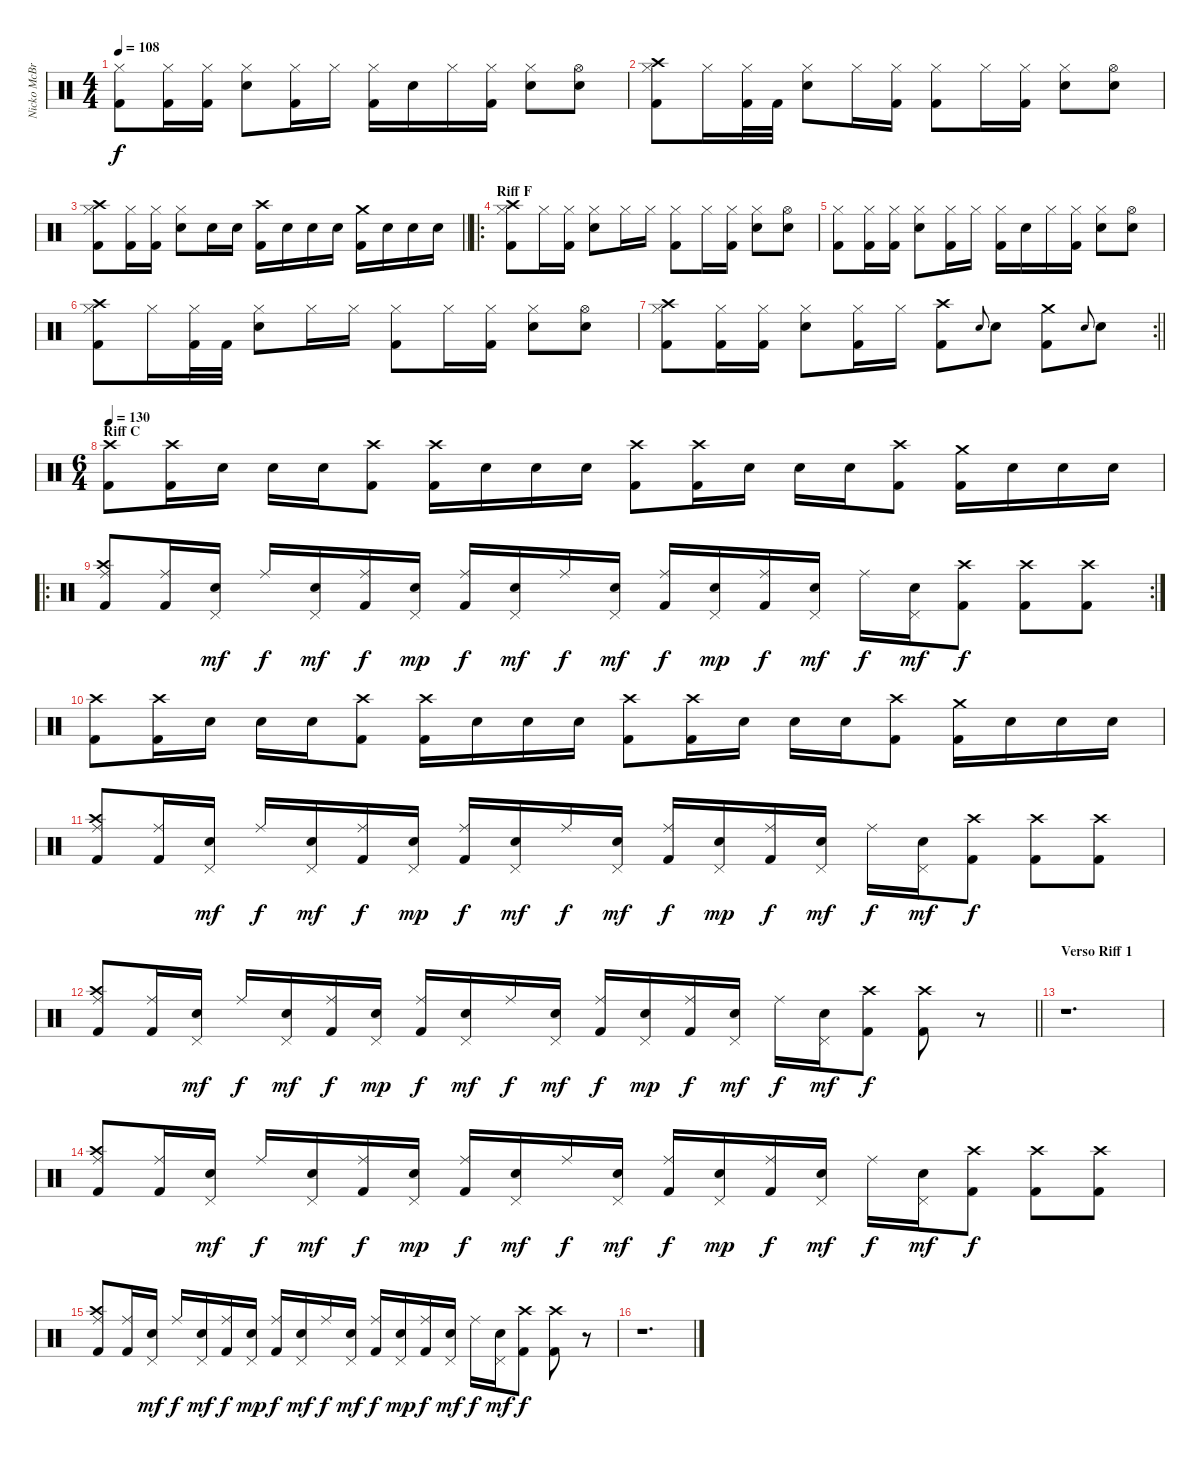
\track ("Nicko McBrain" "Nicko McBr") {instrument percussion}
\staff {score}
\articulation defaults
\ts (4 4)
\tempo 108
\clef neutral
\ks c
("Hi-Hat (closed)" "Kick (hit) 2").8{dy f} ("Hi-Hat (closed)" "Kick (hit) 2").16 ("Hi-Hat (closed)" "Kick (hit) 2").16 ("Hi-Hat (closed)" "Snare (hit) 2").8 ("Hi-Hat (closed)" "Kick (hit) 2").16 "Hi-Hat (closed)".16 ("Hi-Hat (closed)" "Kick (hit) 2").16 "Snare (hit) 2".16 "Hi-Hat (closed)".16 ("Hi-Hat (closed)" "Kick (hit) 2").16 ("Hi-Hat (closed)" "Snare (hit) 2").8 ("Hi-Hat (open)" "Snare (hit) 2").8 |
("Hi-Hat (closed)" "Crash high (hit)" "Kick (hit) 2").8 "Hi-Hat (closed)".16 ("Hi-Hat (closed)" "Kick (hit) 2").32 "Kick (hit) 2".32 ("Hi-Hat (closed)" "Snare (hit) 2").8 "Hi-Hat (closed)".16 ("Hi-Hat (closed)" "Kick (hit) 2").16 ("Hi-Hat (closed)" "Kick (hit) 2").8 "Hi-Hat (closed)".16 ("Hi-Hat (closed)" "Kick (hit) 2").16 ("Hi-Hat (closed)" "Snare (hit) 2").8 ("Hi-Hat (open)" "Snare (hit) 2").8 |
\barLineRight lightlight
("Hi-Hat (closed)" "Crash high (hit)" "Kick (hit) 2").8 ("Hi-Hat (closed)" "Kick (hit) 2").16 ("Hi-Hat (closed)" "Kick (hit) 2").16 ("Hi-Hat (closed)" "Snare (hit) 2").8 "Snare (hit) 2".16 "Snare (hit) 2".16 ("Crash high (hit)" "Kick (hit) 2").16 "Snare (hit) 2".16 "Snare (hit) 2".16 "Snare (hit) 2".16 ("Crash medium (hit)" "Kick (hit) 2").16 "Snare (hit) 2".16 "Snare (hit) 2".16 "Snare (hit) 2".16 |
\ro
\section ("" "Riff F")
("Hi-Hat (closed)" "Crash high (hit)" "Kick (hit) 2").8 "Hi-Hat (closed)".16 ("Hi-Hat (closed)" "Kick (hit) 2").16 ("Hi-Hat (closed)" "Snare (hit) 2").8 "Hi-Hat (closed)".16 "Hi-Hat (closed)".16 ("Hi-Hat (closed)" "Kick (hit) 2").8 "Hi-Hat (closed)".16 ("Hi-Hat (closed)" "Kick (hit) 2").16 ("Hi-Hat (closed)" "Snare (hit) 2").8 ("Hi-Hat (open)" "Snare (hit) 2").8 |
("Hi-Hat (closed)" "Kick (hit) 2").8 ("Hi-Hat (closed)" "Kick (hit) 2").16 ("Hi-Hat (closed)" "Kick (hit) 2").16 ("Hi-Hat (closed)" "Snare (hit) 2").8 ("Hi-Hat (closed)" "Kick (hit) 2").16 "Hi-Hat (closed)".16 ("Hi-Hat (closed)" "Kick (hit) 2").16 "Snare (hit) 2".16 "Hi-Hat (closed)".16 ("Hi-Hat (closed)" "Kick (hit) 2").16 ("Hi-Hat (closed)" "Snare (hit) 2").8 ("Hi-Hat (open)" "Snare (hit) 2").8 |
("Hi-Hat (closed)" "Crash high (hit)" "Kick (hit) 2").8 "Hi-Hat (closed)".16 ("Hi-Hat (closed)" "Kick (hit) 2").32 "Kick (hit) 2".32 ("Hi-Hat (closed)" "Snare (hit) 2").8 "Hi-Hat (closed)".16 "Hi-Hat (closed)".16 ("Hi-Hat (closed)" "Kick (hit) 2").8 "Hi-Hat (closed)".16 ("Hi-Hat (closed)" "Kick (hit) 2").16 ("Hi-Hat (closed)" "Snare (hit) 2").8 ("Hi-Hat (open)" "Snare (hit) 2").8 |
\rc 2
\barLineRight lightlight
("Hi-Hat (closed)" "Crash high (hit)" "Kick (hit) 2").8 ("Hi-Hat (closed)" "Kick (hit) 2").16 ("Hi-Hat (closed)" "Kick (hit) 2").16 ("Hi-Hat (closed)" "Snare (hit) 2").8 ("Hi-Hat (closed)" "Kick (hit) 2").16 "Hi-Hat (closed)".16 ("Crash high (hit)" "Kick (hit) 2").8 "Snare (hit) 2".8{gr onbeat} "Snare (hit) 2".8 ("Crash medium (hit)" "Kick (hit) 2").8 "Snare (hit) 2".8{gr onbeat} "Snare (hit) 2".8 |
\ts (6 4)
\section ("" "Riff C")
\tempo 130
("Crash high (hit)" "Kick (hit) 2").8 ("Crash high (hit)" "Kick (hit) 2").16 "Snare (hit) 2".16 "Snare (hit) 2".16 "Snare (hit) 2".16 ("Crash high (hit)" "Kick (hit) 2").8 ("Crash high (hit)" "Kick (hit) 2").16 "Snare (hit) 2".16 "Snare (hit) 2".16 "Snare (hit) 2".16 ("Crash high (hit)" "Kick (hit) 2").8 ("Crash high (hit)" "Kick (hit) 2").16 "Snare (hit) 2".16 "Snare (hit) 2".16 "Snare (hit) 2".16 ("Crash high (hit)" "Kick (hit) 2").8 ("Crash medium (hit)" "Kick (hit) 2").16 "Snare (hit) 2".16 "Snare (hit) 2".16 "Snare (hit) 2".16 |
\ro
\rc 2
("Ride (middle)" "Crash high (hit)" "Kick (hit) 2").8 ("Ride (middle)" "Kick (hit) 2").16 ("Pedal Hi-Hat (hit)" "Snare (hit) 2").16{dy mf} "Ride (middle)".16{dy f} ("Pedal Hi-Hat (hit)" "Snare (hit) 2").16{dy mf} ("Ride (middle)" "Kick (hit) 2").16{dy f} ("Pedal Hi-Hat (hit)" "Snare (hit) 2").16{dy mp} ("Ride (middle)" "Kick (hit) 2").16{dy f} ("Pedal Hi-Hat (hit)" "Snare (hit) 2").16{dy mf} "Ride (middle)".16{dy f} ("Pedal Hi-Hat (hit)" "Snare (hit) 2").16{dy mf} ("Ride (middle)" "Kick (hit) 2").16{dy f} ("Pedal Hi-Hat (hit)" "Snare (hit) 2").16{dy mp} ("Ride (middle)" "Kick (hit) 2").16{dy f} ("Pedal Hi-Hat (hit)" "Snare (hit) 2").16{dy mf} "Ride (middle)".16{dy f} ("Pedal Hi-Hat (hit)" "Snare (hit) 2").16{dy mf} ("Crash high (hit)" "Kick (hit) 2").8{dy f} ("Crash high (hit)" "Kick (hit) 2").8 ("Crash high (hit)" "Kick (hit) 2").8 |
("Crash high (hit)" "Kick (hit) 2").8 ("Crash high (hit)" "Kick (hit) 2").16 "Snare (hit) 2".16 "Snare (hit) 2".16 "Snare (hit) 2".16 ("Crash high (hit)" "Kick (hit) 2").8 ("Crash high (hit)" "Kick (hit) 2").16 "Snare (hit) 2".16 "Snare (hit) 2".16 "Snare (hit) 2".16 ("Crash high (hit)" "Kick (hit) 2").8 ("Crash high (hit)" "Kick (hit) 2").16 "Snare (hit) 2".16 "Snare (hit) 2".16 "Snare (hit) 2".16 ("Crash high (hit)" "Kick (hit) 2").8 ("Crash medium (hit)" "Kick (hit) 2").16 "Snare (hit) 2".16 "Snare (hit) 2".16 "Snare (hit) 2".16 |
("Ride (middle)" "Crash high (hit)" "Kick (hit) 2").8 ("Ride (middle)" "Kick (hit) 2").16 ("Pedal Hi-Hat (hit)" "Snare (hit) 2").16{dy mf} "Ride (middle)".16{dy f} ("Pedal Hi-Hat (hit)" "Snare (hit) 2").16{dy mf} ("Ride (middle)" "Kick (hit) 2").16{dy f} ("Pedal Hi-Hat (hit)" "Snare (hit) 2").16{dy mp} ("Ride (middle)" "Kick (hit) 2").16{dy f} ("Pedal Hi-Hat (hit)" "Snare (hit) 2").16{dy mf} "Ride (middle)".16{dy f} ("Pedal Hi-Hat (hit)" "Snare (hit) 2").16{dy mf} ("Ride (middle)" "Kick (hit) 2").16{dy f} ("Pedal Hi-Hat (hit)" "Snare (hit) 2").16{dy mp} ("Ride (middle)" "Kick (hit) 2").16{dy f} ("Pedal Hi-Hat (hit)" "Snare (hit) 2").16{dy mf} "Ride (middle)".16{dy f} ("Pedal Hi-Hat (hit)" "Snare (hit) 2").16{dy mf} ("Crash high (hit)" "Kick (hit) 2").8{dy f} ("Crash high (hit)" "Kick (hit) 2").8 ("Crash high (hit)" "Kick (hit) 2").8 |
\barLineRight lightlight
("Ride (middle)" "Crash high (hit)" "Kick (hit) 2").8 ("Ride (middle)" "Kick (hit) 2").16 ("Pedal Hi-Hat (hit)" "Snare (hit) 2").16{dy mf} "Ride (middle)".16{dy f} ("Pedal Hi-Hat (hit)" "Snare (hit) 2").16{dy mf} ("Ride (middle)" "Kick (hit) 2").16{dy f} ("Pedal Hi-Hat (hit)" "Snare (hit) 2").16{dy mp} ("Ride (middle)" "Kick (hit) 2").16{dy f} ("Pedal Hi-Hat (hit)" "Snare (hit) 2").16{dy mf} "Ride (middle)".16{dy f} ("Pedal Hi-Hat (hit)" "Snare (hit) 2").16{dy mf} ("Ride (middle)" "Kick (hit) 2").16{dy f} ("Pedal Hi-Hat (hit)" "Snare (hit) 2").16{dy mp} ("Ride (middle)" "Kick (hit) 2").16{dy f} ("Pedal Hi-Hat (hit)" "Snare (hit) 2").16{dy mf} "Ride (middle)".16{dy f} ("Pedal Hi-Hat (hit)" "Snare (hit) 2").16{dy mf} ("Crash high (hit)" "Kick (hit) 2").8{dy f} ("Crash high (hit)" "Kick (hit) 2").8 r.8 |
\section ("" "Verso Riff 1")
r.1{d} |
("Ride (middle)" "Crash high (hit)" "Kick (hit) 2").8 ("Ride (middle)" "Kick (hit) 2").16 ("Pedal Hi-Hat (hit)" "Snare (hit) 2").16{dy mf} "Ride (middle)".16{dy f} ("Pedal Hi-Hat (hit)" "Snare (hit) 2").16{dy mf} ("Ride (middle)" "Kick (hit) 2").16{dy f} ("Pedal Hi-Hat (hit)" "Snare (hit) 2").16{dy mp} ("Ride (middle)" "Kick (hit) 2").16{dy f} ("Pedal Hi-Hat (hit)" "Snare (hit) 2").16{dy mf} "Ride (middle)".16{dy f} ("Pedal Hi-Hat (hit)" "Snare (hit) 2").16{dy mf} ("Ride (middle)" "Kick (hit) 2").16{dy f} ("Pedal Hi-Hat (hit)" "Snare (hit) 2").16{dy mp} ("Ride (middle)" "Kick (hit) 2").16{dy f} ("Pedal Hi-Hat (hit)" "Snare (hit) 2").16{dy mf} "Ride (middle)".16{dy f} ("Pedal Hi-Hat (hit)" "Snare (hit) 2").16{dy mf} ("Crash high (hit)" "Kick (hit) 2").8{dy f} ("Crash high (hit)" "Kick (hit) 2").8 ("Crash high (hit)" "Kick (hit) 2").8 |
("Ride (middle)" "Crash high (hit)" "Kick (hit) 2").8 ("Ride (middle)" "Kick (hit) 2").16 ("Pedal Hi-Hat (hit)" "Snare (hit) 2").16{dy mf} "Ride (middle)".16{dy f} ("Pedal Hi-Hat (hit)" "Snare (hit) 2").16{dy mf} ("Ride (middle)" "Kick (hit) 2").16{dy f} ("Pedal Hi-Hat (hit)" "Snare (hit) 2").16{dy mp} ("Ride (middle)" "Kick (hit) 2").16{dy f} ("Pedal Hi-Hat (hit)" "Snare (hit) 2").16{dy mf} "Ride (middle)".16{dy f} ("Pedal Hi-Hat (hit)" "Snare (hit) 2").16{dy mf} ("Ride (middle)" "Kick (hit) 2").16{dy f} ("Pedal Hi-Hat (hit)" "Snare (hit) 2").16{dy mp} ("Ride (middle)" "Kick (hit) 2").16{dy f} ("Pedal Hi-Hat (hit)" "Snare (hit) 2").16{dy mf} "Ride (middle)".16{dy f} ("Pedal Hi-Hat (hit)" "Snare (hit) 2").16{dy mf} ("Crash high (hit)" "Kick (hit) 2").8{dy f} ("Crash high (hit)" "Kick (hit) 2").8 r.8 |
r.1{d}
